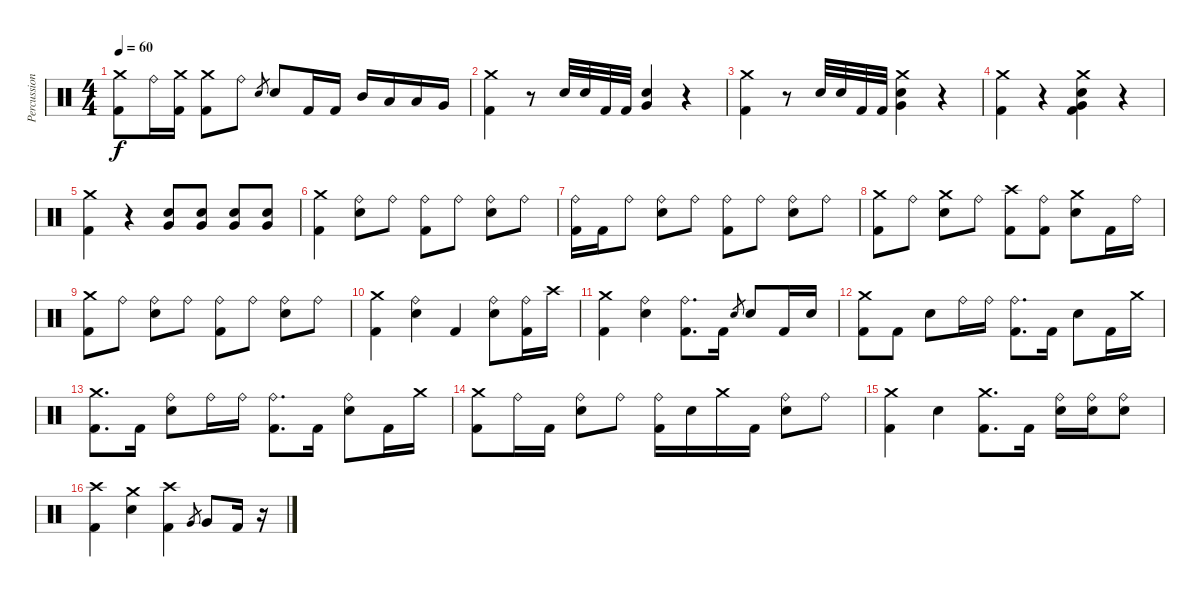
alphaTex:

\track ("Percussion" "Percussion") {instrument percussion}
\staff {score}
\articulation defaults
\ts (4 4)
\tempo 60
\clef neutral
\ks c
("Crash medium (hit)" "Kick (hit) 2").8{dy f} "Ride (bell)".16 ("Crash medium (hit)" "Kick (hit) 2").16 ("Crash medium (hit)" "Kick (hit) 2").8 "Ride (bell)".8 "Snare (hit) 2".8{gr} "Snare (hit) 2".8 "Kick (hit) 2".16 "Kick (hit) 2".16 "Mid Tom (hit)".16 "Low Tom (hit)".16 "Low Tom (hit)".16 "Very Low Tom (hit)".16 |
("Crash medium (hit)" "Kick (hit) 2").4 r.8 "Snare (hit) 2".32 "Snare (hit) 2".32 "Kick (hit) 2".32 "Kick (hit) 2".32 ("Very Low Tom (hit)" "Snare (hit) 2").4 r.4 |
("Crash medium (hit)" "Kick (hit) 2").4 r.8 "Snare (hit) 2".32 "Snare (hit) 2".32 "Kick (hit) 2".32 "Kick (hit) 2".32 ("Crash medium (hit)" "Very Low Tom (hit)" "Snare (hit) 2").4 r.4 |
("Crash medium (hit)" "Kick (hit) 2").4 r.4 ("Crash medium (hit)" "Very Low Tom (hit)" "Snare (hit) 2" "Kick (hit) 2").4 r.4 |
("Crash medium (hit)" "Kick (hit) 2").4 r.4 ("Very Low Tom (hit)" "Snare (hit) 2").8 ("Very Low Tom (hit)" "Snare (hit) 2").8 ("Very Low Tom (hit)" "Snare (hit) 2").8 ("Very Low Tom (hit)" "Snare (hit) 2").8 |
("Crash medium (hit)" "Kick (hit) 2").4 ("Ride (bell)" "Snare (hit) 2").8 "Ride (bell)".8 ("Ride (bell)" "Kick (hit) 2").8 "Ride (bell)".8 ("Ride (bell)" "Snare (hit) 2").8 "Ride (bell)".8 |
("Ride (bell)" "Kick (hit) 2").16 "Kick (hit) 2".16 "Ride (bell)".8 ("Ride (bell)" "Snare (hit) 2").8 "Ride (bell)".8 ("Ride (bell)" "Kick (hit) 2").8 "Ride (bell)".8 ("Ride (bell)" "Snare (hit) 2").8 "Ride (bell)".8 |
("Crash medium (hit)" "Kick (hit) 2").8 "Ride (bell)".8 ("Crash medium (hit)" "Snare (hit) 2").8 "Ride (bell)".8 ("Crash high (hit)" "Kick (hit) 2").8 ("Ride (bell)" "Kick (hit) 2").8 ("Crash medium (hit)" "Snare (hit) 2").8 "Kick (hit) 2".16 "Ride (bell)".16 |
("Crash medium (hit)" "Kick (hit) 2").8 "Ride (bell)".8 ("Ride (bell)" "Snare (hit) 2").8 "Ride (bell)".8 ("Ride (bell)" "Kick (hit) 2").8 "Ride (bell)".8 ("Ride (bell)" "Snare (hit) 2").8 "Ride (bell)".8 |
("Crash medium (hit)" "Kick (hit) 2").4 ("Ride (bell)" "Snare (hit) 2").4 "Kick (hit) 2".4 ("Ride (bell)" "Snare (hit) 2").8 ("Ride (bell)" "Kick (hit) 2").16 "Crash high (hit)".16 |
("Crash medium (hit)" "Kick (hit) 2").4 ("Ride (bell)" "Snare (hit) 2").4 ("Ride (bell)" "Kick (hit) 2").8{d} "Kick (hit) 2".16 "Snare (hit) 2".8{gr} "Snare (hit) 2".8 "Kick (hit) 2".16 "Snare (hit) 2".16 |
("Crash medium (hit)" "Kick (hit) 2").8 "Kick (hit) 2".8 "Snare (hit) 2".8 "Ride (bell)".16 "Ride (bell)".16 ("Ride (bell)" "Kick (hit) 2").8{d} "Kick (hit) 2".16 "Snare (hit) 2".8 "Kick (hit) 2".16 "Crash medium (hit)".16 |
("Crash medium (hit)" "Kick (hit) 2").8{d} "Kick (hit) 2".16 ("Ride (bell)" "Snare (hit) 2").8 "Ride (bell)".16 "Ride (bell)".16 ("Ride (bell)" "Kick (hit) 2").8{d} "Kick (hit) 2".16 ("Ride (bell)" "Snare (hit) 2").8 "Kick (hit) 2".16 "Crash medium (hit)".16 |
("Crash medium (hit)" "Kick (hit) 2").8 "Ride (bell)".16 "Kick (hit) 2".16 ("Ride (bell)" "Snare (hit) 2").8 "Ride (bell)".8 ("Ride (bell)" "Kick (hit) 2").16 "Snare (hit) 2".16 "Crash medium (hit)".16 "Kick (hit) 2".16 ("Ride (bell)" "Snare (hit) 2").8 "Ride (bell)".8 |
("Crash medium (hit)" "Kick (hit) 2").4 "Snare (hit) 2".4 ("Crash medium (hit)" "Kick (hit) 2").8{d} "Kick (hit) 2".16 ("Ride (bell)" "Snare (hit) 2").16 ("Ride (bell)" "Snare (hit) 2").16 ("Ride (bell)" "Snare (hit) 2").8 |
("Crash high (hit)" "Kick (hit) 2").4 ("Crash medium (hit)" "Snare (hit) 2").4 ("Crash high (hit)" "Kick (hit) 2").4 "Very Low Tom (hit)".8{gr} "Very Low Tom (hit)".8 "Kick (hit) 2".16 r.16
